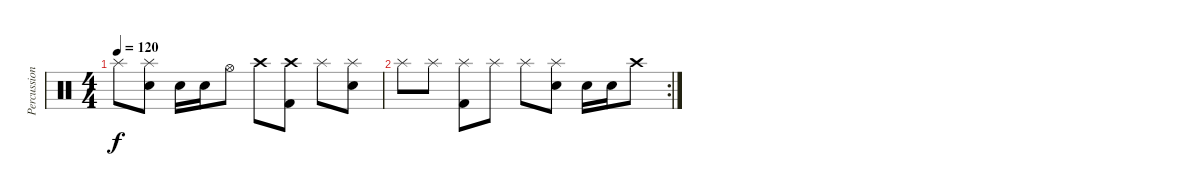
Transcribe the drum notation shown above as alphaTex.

\track ("Percussion" "Percussion") {instrument percussion}
\staff {score}
\articulation defaults
\ts (4 4)
\tempo 120
\clef neutral
\ks c "Splash (hit)".8{dy f}
("Splash (hit)" "Snare (hit) 2").8 "Snare (hit) 2".16 "Snare (hit) 2".16 "Hi-Hat (open)".8 "Crash high (hit)".8 ("Crash high (hit)" "Kick (hit) 2").8 "Splash (hit)".8 ("Splash (hit)" "Snare (hit) 2").8 |
\rc 2 "Splash (hit)".8 "Splash (hit)".8
("Splash (hit)" "Kick (hit) 2").8 "Splash (hit)".8 "Splash (hit)".8 ("Splash (hit)" "Snare (hit) 2").8 "Snare (hit) 2".16 "Snare (hit) 2".16 "Crash high (hit)".8
